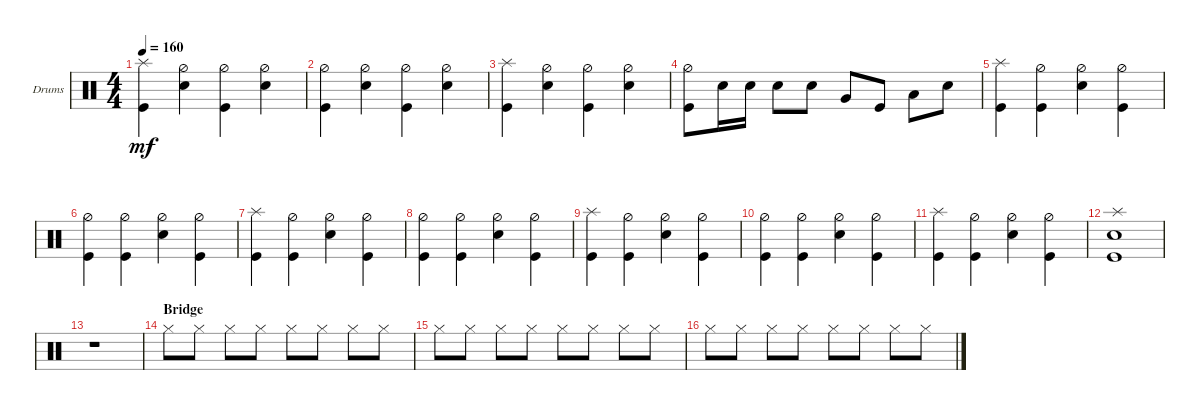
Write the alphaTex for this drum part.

\defaultSystemsLayout 4
\bracketExtendMode groupsimilarinstruments
\firstSystemTrackNameOrientation horizontal
\otherSystemsTrackNameOrientation horizontal
\track ("Drumkit" "Drums") {instrument percussion}
\staff {score}
\articulation defaults
\ts (4 4)
\tempo 160
\clef neutral
\ks c
("Kick (hit)" "Splash (hit)").4{dy mf} ("Hi-Hat (half)" "Snare (hit) 2").4 ("Hi-Hat (half)" "Kick (hit)").4 ("Hi-Hat (half)" "Snare (hit) 2").4 |
("Hi-Hat (half)" "Kick (hit)").4 ("Hi-Hat (half)" "Snare (hit) 2").4 ("Hi-Hat (half)" "Kick (hit)").4 ("Hi-Hat (half)" "Snare (hit) 2").4 |
("Kick (hit)" "Splash (hit)").4 ("Hi-Hat (half)" "Snare (hit) 2").4 ("Hi-Hat (half)" "Kick (hit)").4 ("Hi-Hat (half)" "Snare (hit) 2").4 |
("Hi-Hat (half)" "Kick (hit)").8 "Snare (hit) 2".16 "Snare (hit) 2".16 "Snare (hit) 2".8 "Snare (hit) 2".8 "Very Low Tom (hit)".8 "Kick (hit)".8 "Low Tom (hit)".8 "Snare (hit) 2".8 |
("Splash (hit)" "Kick (hit)").4 ("Hi-Hat (half)" "Kick (hit)").4 ("Hi-Hat (half)" "Snare (hit) 2").4 ("Hi-Hat (half)" "Kick (hit)").4 |
("Hi-Hat (half)" "Kick (hit)").4 ("Hi-Hat (half)" "Kick (hit)").4 ("Hi-Hat (half)" "Snare (hit) 2").4 ("Hi-Hat (half)" "Kick (hit)").4 |
("Splash (hit)" "Kick (hit)").4 ("Hi-Hat (half)" "Kick (hit)").4 ("Hi-Hat (half)" "Snare (hit) 2").4 ("Hi-Hat (half)" "Kick (hit)").4 |
("Hi-Hat (half)" "Kick (hit)").4 ("Hi-Hat (half)" "Kick (hit)").4 ("Hi-Hat (half)" "Snare (hit) 2").4 ("Hi-Hat (half)" "Kick (hit)").4 |
("Splash (hit)" "Kick (hit)").4 ("Hi-Hat (half)" "Kick (hit)").4 ("Hi-Hat (half)" "Snare (hit) 2").4 ("Hi-Hat (half)" "Kick (hit)").4 |
("Hi-Hat (half)" "Kick (hit)").4 ("Hi-Hat (half)" "Kick (hit)").4 ("Hi-Hat (half)" "Snare (hit) 2").4 ("Hi-Hat (half)" "Kick (hit)").4 |
("Splash (hit)" "Kick (hit)").4 ("Hi-Hat (half)" "Kick (hit)").4 ("Hi-Hat (half)" "Snare (hit) 2").4 ("Hi-Hat (half)" "Kick (hit)").4 |
("Kick (hit)" "Snare (hit) 2" "Splash (hit)").1 |
r.1 |
\section ("" "Bridge")
"Hi-Hat (closed)".8 "Hi-Hat (closed)".8 "Hi-Hat (closed)".8 "Hi-Hat (closed)".8 "Hi-Hat (closed)".8 "Hi-Hat (closed)".8 "Hi-Hat (closed)".8 "Hi-Hat (closed)".8 |
"Hi-Hat (closed)".8 "Hi-Hat (closed)".8 "Hi-Hat (closed)".8 "Hi-Hat (closed)".8 "Hi-Hat (closed)".8 "Hi-Hat (closed)".8 "Hi-Hat (closed)".8 "Hi-Hat (closed)".8 |
"Hi-Hat (closed)".8 "Hi-Hat (closed)".8 "Hi-Hat (closed)".8 "Hi-Hat (closed)".8 "Hi-Hat (closed)".8 "Hi-Hat (closed)".8 "Hi-Hat (closed)".8 "Hi-Hat (closed)".8
